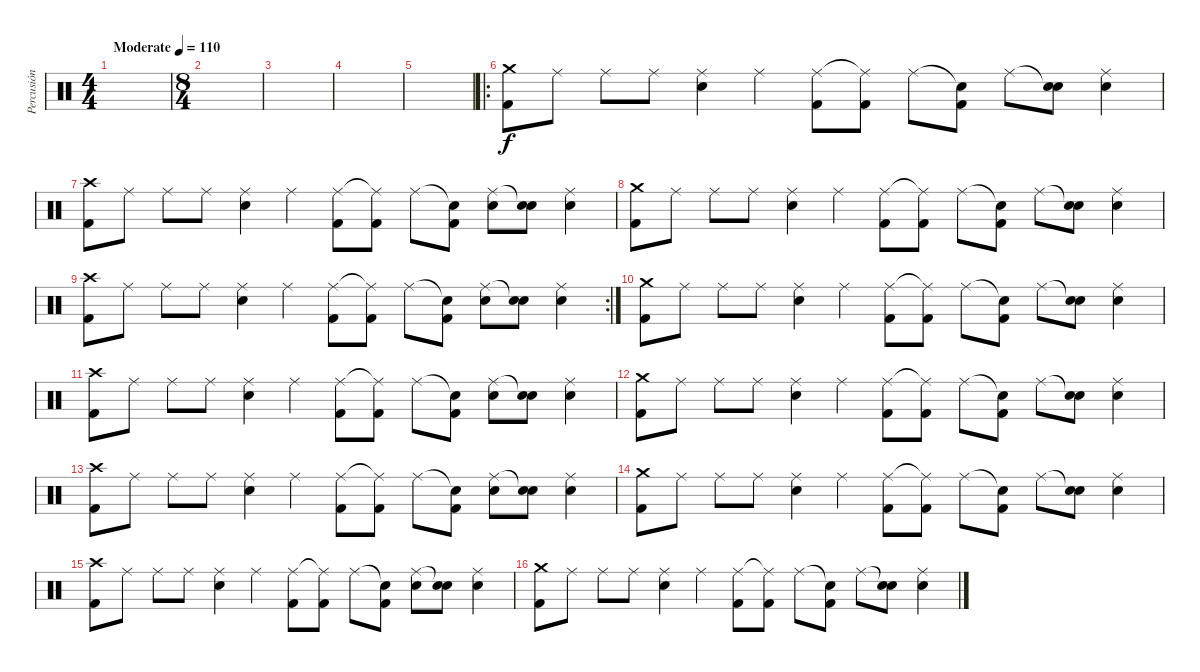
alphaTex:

\track ("Percusión" "Percusión") {instrument percussion}
\staff {score}
\articulation defaults
\ts (4 4)
\tempo (110 "Moderate")
\clef neutral
\ks c
|
\ts (8 4)
|
|
|
|
\ro
("Crash medium (hit)" "Kick (hit) 2").8 "Ride (middle)".8 "Ride (middle)".8 "Ride (middle)".8 ("Ride (middle)" "Electric Snare (hit)").4 "Ride (middle)".4 ("Ride (middle)" "Kick (hit) 2").8 ("Ride (middle)"{t} "Kick (hit) 2").8 "Ride (middle)".8 ("Snare (hit)"{t} "Kick (hit) 2").8 "Ride (middle)".8 ("Snare (hit)"{t} "Electric Snare (hit)").8 ("Ride (middle)" "Electric Snare (hit)").4 |
("Crash high (hit)" "Kick (hit) 2").8 "Ride (middle)".8 "Ride (middle)".8 "Ride (middle)".8 ("Ride (middle)" "Electric Snare (hit)").4 "Ride (middle)".4 ("Ride (middle)" "Kick (hit) 2").8 ("Ride (middle)"{t} "Kick (hit) 2").8 "Ride (middle)".8 ("Snare (hit)"{t} "Kick (hit) 2").8 ("Ride (middle)" "Electric Snare (hit)").8 ("Snare (hit)"{t} "Electric Snare (hit)").8 ("Ride (middle)" "Electric Snare (hit)").4 |
("Crash medium (hit)" "Kick (hit) 2").8 "Ride (middle)".8 "Ride (middle)".8 "Ride (middle)".8 ("Ride (middle)" "Electric Snare (hit)").4 "Ride (middle)".4 ("Ride (middle)" "Kick (hit) 2").8 ("Ride (middle)"{t} "Kick (hit) 2").8 "Ride (middle)".8 ("Snare (hit)"{t} "Kick (hit) 2").8 "Ride (middle)".8 ("Snare (hit)"{t} "Electric Snare (hit)").8 ("Ride (middle)" "Electric Snare (hit)").4 |
\rc 2
("Crash high (hit)" "Kick (hit) 2").8 "Ride (middle)".8 "Ride (middle)".8 "Ride (middle)".8 ("Ride (middle)" "Electric Snare (hit)").4 "Ride (middle)".4 ("Ride (middle)" "Kick (hit) 2").8 ("Ride (middle)"{t} "Kick (hit) 2").8 "Ride (middle)".8 ("Snare (hit)"{t} "Kick (hit) 2").8 ("Ride (middle)" "Electric Snare (hit)").8 ("Snare (hit)"{t} "Electric Snare (hit)").8 ("Ride (middle)" "Electric Snare (hit)").4 |
("Crash medium (hit)" "Kick (hit) 2").8 "Ride (middle)".8 "Ride (middle)".8 "Ride (middle)".8 ("Ride (middle)" "Electric Snare (hit)").4 "Ride (middle)".4 ("Ride (middle)" "Kick (hit) 2").8 ("Ride (middle)"{t} "Kick (hit) 2").8 "Ride (middle)".8 ("Snare (hit)"{t} "Kick (hit) 2").8 "Ride (middle)".8 ("Snare (hit)"{t} "Electric Snare (hit)").8 ("Ride (middle)" "Electric Snare (hit)").4 |
("Crash high (hit)" "Kick (hit) 2").8 "Ride (middle)".8 "Ride (middle)".8 "Ride (middle)".8 ("Ride (middle)" "Electric Snare (hit)").4 "Ride (middle)".4 ("Ride (middle)" "Kick (hit) 2").8 ("Ride (middle)"{t} "Kick (hit) 2").8 "Ride (middle)".8 ("Snare (hit)"{t} "Kick (hit) 2").8 ("Ride (middle)" "Electric Snare (hit)").8 ("Snare (hit)"{t} "Electric Snare (hit)").8 ("Ride (middle)" "Electric Snare (hit)").4 |
("Crash medium (hit)" "Kick (hit) 2").8 "Ride (middle)".8 "Ride (middle)".8 "Ride (middle)".8 ("Ride (middle)" "Electric Snare (hit)").4 "Ride (middle)".4 ("Ride (middle)" "Kick (hit) 2").8 ("Ride (middle)"{t} "Kick (hit) 2").8 "Ride (middle)".8 ("Snare (hit)"{t} "Kick (hit) 2").8 "Ride (middle)".8 ("Snare (hit)"{t} "Electric Snare (hit)").8 ("Ride (middle)" "Electric Snare (hit)").4 |
("Crash high (hit)" "Kick (hit) 2").8 "Ride (middle)".8 "Ride (middle)".8 "Ride (middle)".8 ("Ride (middle)" "Electric Snare (hit)").4 "Ride (middle)".4 ("Ride (middle)" "Kick (hit) 2").8 ("Ride (middle)"{t} "Kick (hit) 2").8 "Ride (middle)".8 ("Snare (hit)"{t} "Kick (hit) 2").8 ("Ride (middle)" "Electric Snare (hit)").8 ("Snare (hit)"{t} "Electric Snare (hit)").8 ("Ride (middle)" "Electric Snare (hit)").4 |
("Crash medium (hit)" "Kick (hit) 2").8 "Ride (middle)".8 "Ride (middle)".8 "Ride (middle)".8 ("Ride (middle)" "Electric Snare (hit)").4 "Ride (middle)".4 ("Ride (middle)" "Kick (hit) 2").8 ("Ride (middle)"{t} "Kick (hit) 2").8 "Ride (middle)".8 ("Snare (hit)"{t} "Kick (hit) 2").8 "Ride (middle)".8 ("Snare (hit)"{t} "Electric Snare (hit)").8 ("Ride (middle)" "Electric Snare (hit)").4 |
("Crash high (hit)" "Kick (hit) 2").8 "Ride (middle)".8 "Ride (middle)".8 "Ride (middle)".8 ("Ride (middle)" "Electric Snare (hit)").4 "Ride (middle)".4 ("Ride (middle)" "Kick (hit) 2").8 ("Ride (middle)"{t} "Kick (hit) 2").8 "Ride (middle)".8 ("Snare (hit)"{t} "Kick (hit) 2").8 ("Ride (middle)" "Electric Snare (hit)").8 ("Snare (hit)"{t} "Electric Snare (hit)").8 ("Ride (middle)" "Electric Snare (hit)").4 |
("Crash medium (hit)" "Kick (hit) 2").8 "Ride (middle)".8 "Ride (middle)".8 "Ride (middle)".8 ("Ride (middle)" "Electric Snare (hit)").4 "Ride (middle)".4 ("Ride (middle)" "Kick (hit) 2").8 ("Ride (middle)"{t} "Kick (hit) 2").8 "Ride (middle)".8 ("Snare (hit)"{t} "Kick (hit) 2").8 "Ride (middle)".8 ("Snare (hit)"{t} "Electric Snare (hit)").8 ("Ride (middle)" "Electric Snare (hit)").4
